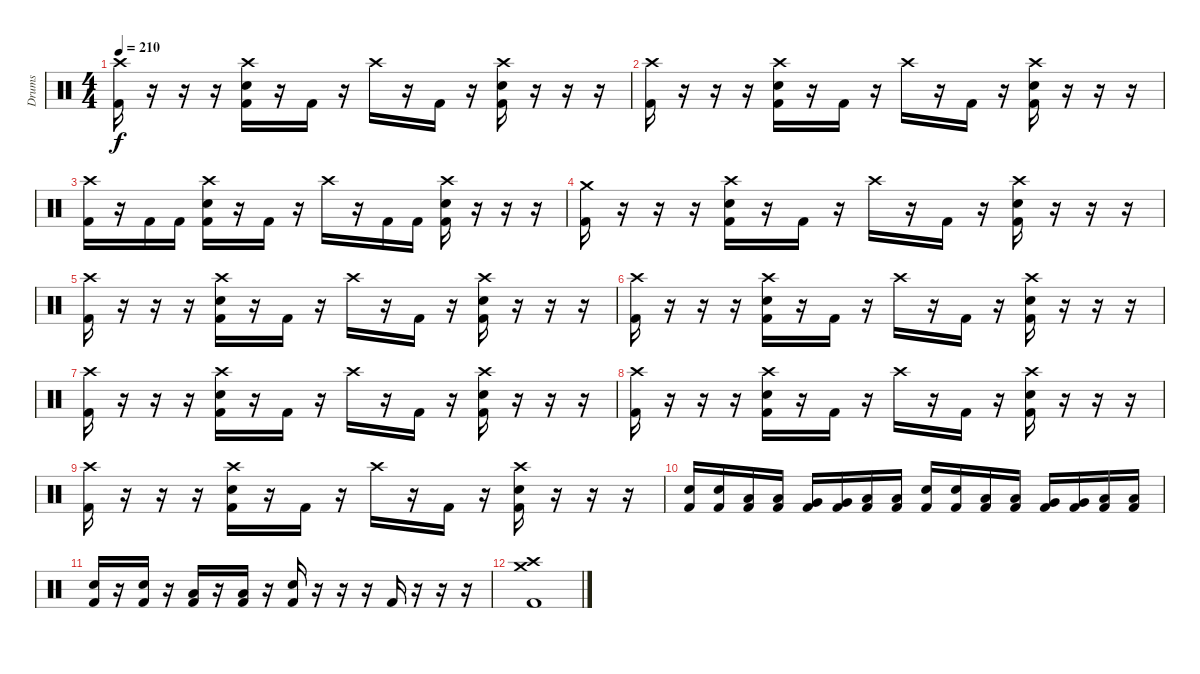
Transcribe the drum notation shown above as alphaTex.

\track ("Drums" "Drums") {instrument percussion}
\staff {score}
\articulation defaults
\ts (4 4)
\tempo 210
\clef neutral
\ks c
("Crash high (hit)" "Kick (hit) 2").16{dy f} r.16 r.16 r.16 ("Crash high (hit)" "Electric Snare (hit)" "Kick (hit) 2").16 r.16 "Kick (hit) 2".16 r.16 "Crash high (hit)".16 r.16 "Kick (hit) 2".16 r.16 ("Crash high (hit)" "Electric Snare (hit)" "Kick (hit) 2").16 r.16 r.16 r.16 |
("Crash high (hit)" "Kick (hit) 2").16 r.16 r.16 r.16 ("Crash high (hit)" "Electric Snare (hit)" "Kick (hit) 2").16 r.16 "Kick (hit) 2".16 r.16 "Crash high (hit)".16 r.16 "Kick (hit) 2".16 r.16 ("Crash high (hit)" "Electric Snare (hit)" "Kick (hit) 2").16 r.16 r.16 r.16 |
("Crash high (hit)" "Kick (hit) 2").16 r.16 "Kick (hit) 2".16 "Kick (hit) 2".16 ("Crash high (hit)" "Electric Snare (hit)" "Kick (hit) 2").16 r.16 "Kick (hit) 2".16 r.16 "Crash high (hit)".16 r.16 "Kick (hit) 2".16 "Kick (hit) 2".16 ("Crash high (hit)" "Electric Snare (hit)" "Kick (hit) 2").16 r.16 r.16 r.16 |
("Crash medium (hit)" "Kick (hit) 2").16{volume 16} r.16 r.16 r.16 ("Crash high (hit)" "Electric Snare (hit)" "Kick (hit) 2").16 r.16 "Kick (hit) 2".16 r.16 "Crash high (hit)".16 r.16 "Kick (hit) 2".16 r.16 ("Crash high (hit)" "Electric Snare (hit)" "Kick (hit) 2").16 r.16 r.16 r.16 |
("Crash high (hit)" "Kick (hit) 2").16 r.16 r.16 r.16 ("Crash high (hit)" "Electric Snare (hit)" "Kick (hit) 2").16 r.16 "Kick (hit) 2".16 r.16 "Crash high (hit)".16 r.16 "Kick (hit) 2".16 r.16 ("Crash high (hit)" "Electric Snare (hit)" "Kick (hit) 2").16 r.16 r.16 r.16 |
("Crash high (hit)" "Kick (hit) 2").16 r.16 r.16 r.16 ("Crash high (hit)" "Electric Snare (hit)" "Kick (hit) 2").16 r.16 "Kick (hit) 2".16 r.16 "Crash high (hit)".16 r.16 "Kick (hit) 2".16 r.16 ("Crash high (hit)" "Electric Snare (hit)" "Kick (hit) 2").16 r.16 r.16 r.16 |
("Crash high (hit)" "Kick (hit) 2").16 r.16 r.16 r.16 ("Crash high (hit)" "Electric Snare (hit)" "Kick (hit) 2").16 r.16 "Kick (hit) 2".16 r.16 "Crash high (hit)".16 r.16 "Kick (hit) 2".16 r.16 ("Crash high (hit)" "Electric Snare (hit)" "Kick (hit) 2").16 r.16 r.16 r.16 |
("Crash high (hit)" "Kick (hit) 2").16 r.16 r.16 r.16 ("Crash high (hit)" "Electric Snare (hit)" "Kick (hit) 2").16 r.16 "Kick (hit) 2".16 r.16 "Crash high (hit)".16 r.16 "Kick (hit) 2".16 r.16 ("Crash high (hit)" "Electric Snare (hit)" "Kick (hit) 2").16 r.16 r.16 r.16 |
("Crash high (hit)" "Kick (hit) 2").16 r.16 r.16 r.16 ("Crash high (hit)" "Electric Snare (hit)" "Kick (hit) 2").16 r.16 "Kick (hit) 2".16 r.16 "Crash high (hit)".16 r.16 "Kick (hit) 2".16 r.16 ("Crash high (hit)" "Electric Snare (hit)" "Kick (hit) 2").16 r.16 r.16 r.16 |
("Electric Snare (hit)" "Kick (hit) 2").16 ("Electric Snare (hit)" "Kick (hit) 2").16 ("Low Tom (hit)" "Kick (hit) 2").16 ("Low Tom (hit)" "Kick (hit) 2").16 ("Very Low Tom (hit)" "Kick (hit) 2").16 ("Very Low Tom (hit)" "Kick (hit) 2").16 ("Low Floor Tom (hit)" "Kick (hit) 2").16 ("Low Floor Tom (hit)" "Kick (hit) 2").16 ("Electric Snare (hit)" "Kick (hit) 2").16 ("Electric Snare (hit)" "Kick (hit) 2").16 ("Low Tom (hit)" "Kick (hit) 2").16 ("Low Tom (hit)" "Kick (hit) 2").16 ("Very Low Tom (hit)" "Kick (hit) 2").16 ("Very Low Tom (hit)" "Kick (hit) 2").16 ("Low Floor Tom (hit)" "Kick (hit) 2").16 ("Low Floor Tom (hit)" "Kick (hit) 2").16 |
("Electric Snare (hit)" "Kick (hit) 2").16 r.16 ("Electric Snare (hit)" "Kick (hit) 2").16 r.16 ("Low Tom (hit)" "Kick (hit) 2").16 r.16 ("Low Tom (hit)" "Kick (hit) 2").16 r.16 ("Electric Snare (hit)" "Kick (hit) 2").16 r.16 r.16 r.16 "Kick (hit) 2".16 r.16 r.16 r.16 |
("Crash medium (hit)" "Crash high (hit)" "Kick (hit) 2").1
